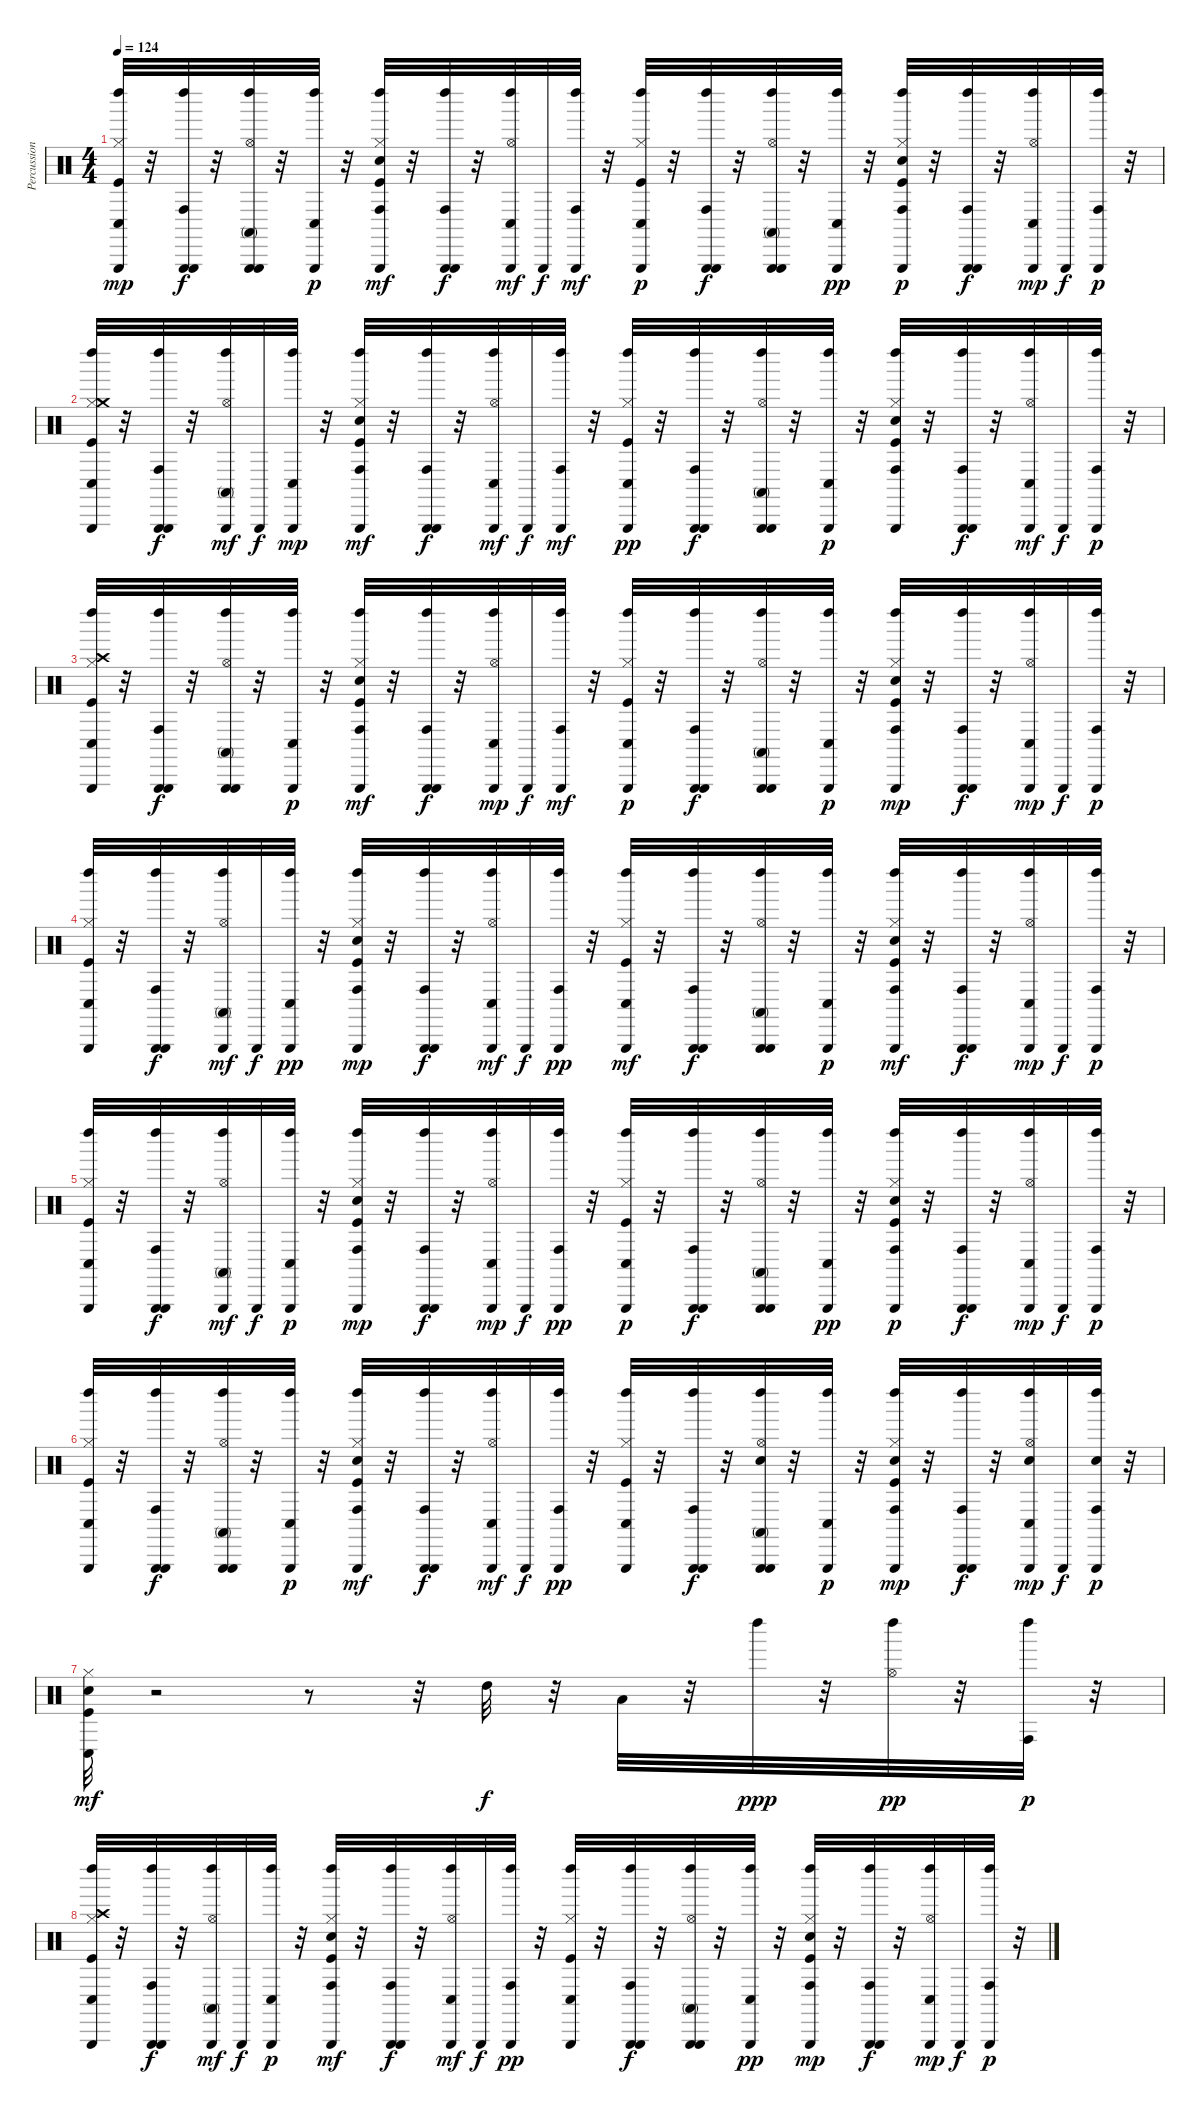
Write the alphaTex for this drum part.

\track ("Percussion" "Percussion") {instrument percussion}
\staff {score}
\articulation defaults
\ts (4 4)
\tempo 124
\clef neutral
\ks c
("Triangle (hit)" "Hi-Hat (closed)" "Conga low (hit)" "Kick (hit)" "Left Maraca (hit)").32{dy mp} r.32 ("Conga high (hit)" "Triangle (hit)" "Left Maraca (hit)" "Triangle (hit)").32{dy f} r.32 ("Triangle (hit)" "Left Maraca (hit)" "Hi-Hat (open)" "Conga high (mute)" "Triangle (hit)").32 r.32 ("Triangle (hit)" "Left Maraca (hit)" "Conga low (hit)").32{dy p} r.32 ("Triangle (hit)" "Kick (hit)" "Snare (hit) 2" "Left Maraca (hit)" "Hi-Hat (closed)" "Conga high (hit)").32{dy mf} r.32 ("Triangle (hit)" "Left Maraca (hit)" "Conga high (hit)" "Triangle (hit)").32{dy f} r.32 ("Triangle (hit)" "Hi-Hat (open)" "Left Maraca (hit)" "Conga low (hit)").32{dy mf} "Triangle (hit)".32{dy f} ("Triangle (hit)" "Left Maraca (hit)" "Conga high (hit)").32{dy mf} r.32 ("Triangle (hit)" "Hi-Hat (closed)" "Left Maraca (hit)" "Kick (hit)" "Conga low (hit)").32{dy p} r.32 ("Triangle (hit)" "Conga high (hit)" "Left Maraca (hit)" "Triangle (hit)").32{dy f} r.32 ("Hi-Hat (open)" "Conga high (mute)" "Triangle (hit)" "Left Maraca (hit)" "Triangle (hit)").32 r.32 ("Conga low (hit)" "Triangle (hit)" "Left Maraca (hit)").32{dy pp} r.32 ("Triangle (hit)" "Kick (hit)" "Snare (hit) 2" "Hi-Hat (closed)" "Conga high (hit)" "Left Maraca (hit)").32{dy p} r.32 ("Triangle (hit)" "Conga high (hit)" "Left Maraca (hit)" "Triangle (hit)").32{dy f} r.32 ("Triangle (hit)" "Conga low (hit)" "Hi-Hat (open)" "Left Maraca (hit)").32{dy mp} "Triangle (hit)".32{dy f} ("Triangle (hit)" "Conga high (hit)" "Left Maraca (hit)").32{dy p} r.32 |
("Triangle (hit)" "Hi-Hat (closed)" "Kick (hit)" "Crash medium (hit)" "Left Maraca (hit)" "Conga low (hit)").32 r.32 ("Triangle (hit)" "Conga high (hit)" "Left Maraca (hit)" "Triangle (hit)").32{dy f} r.32 ("Triangle (hit)" "Hi-Hat (open)" "Conga high (mute)" "Left Maraca (hit)").32{dy mf} "Triangle (hit)".32{dy f} ("Conga low (hit)" "Left Maraca (hit)" "Triangle (hit)").32{dy mp} r.32 ("Triangle (hit)" "Hi-Hat (closed)" "Kick (hit)" "Snare (hit) 2" "Left Maraca (hit)" "Conga high (hit)").32{dy mf} r.32 ("Triangle (hit)" "Left Maraca (hit)" "Conga high (hit)" "Triangle (hit)").32{dy f} r.32 ("Triangle (hit)" "Hi-Hat (open)" "Left Maraca (hit)" "Conga low (hit)").32{dy mf} "Triangle (hit)".32{dy f} ("Triangle (hit)" "Left Maraca (hit)" "Conga high (hit)").32{dy mf} r.32 ("Triangle (hit)" "Hi-Hat (closed)" "Kick (hit)" "Left Maraca (hit)" "Conga low (hit)").32{dy pp} r.32 ("Triangle (hit)" "Conga high (hit)" "Left Maraca (hit)" "Triangle (hit)").32{dy f} r.32 ("Left Maraca (hit)" "Triangle (hit)" "Hi-Hat (open)" "Conga high (mute)" "Triangle (hit)").32 r.32 ("Left Maraca (hit)" "Triangle (hit)" "Conga low (hit)").32{dy p} r.32 ("Triangle (hit)" "Hi-Hat (closed)" "Kick (hit)" "Snare (hit) 2" "Conga high (hit)" "Left Maraca (hit)").32 r.32 ("Triangle (hit)" "Conga high (hit)" "Left Maraca (hit)" "Triangle (hit)").32{dy f} r.32 ("Triangle (hit)" "Hi-Hat (open)" "Left Maraca (hit)" "Conga low (hit)").32{dy mf} "Triangle (hit)".32{dy f} ("Triangle (hit)" "Conga high (hit)" "Left Maraca (hit)").32{dy p} r.32 |
("Hi-Hat (closed)" "Triangle (hit)" "Kick (hit)" "Crash high (hit)" "Left Maraca (hit)" "Conga low (hit)").32 r.32 ("Triangle (hit)" "Left Maraca (hit)" "Conga high (hit)" "Triangle (hit)").32{dy f} r.32 ("Triangle (hit)" "Hi-Hat (open)" "Left Maraca (hit)" "Conga high (mute)" "Triangle (hit)").32 r.32 ("Triangle (hit)" "Left Maraca (hit)" "Conga low (hit)").32{dy p} r.32 ("Triangle (hit)" "Conga high (hit)" "Left Maraca (hit)" "Kick (hit)" "Snare (hit) 2" "Hi-Hat (closed)").32{dy mf} r.32 ("Triangle (hit)" "Left Maraca (hit)" "Conga high (hit)" "Triangle (hit)").32{dy f} r.32 ("Triangle (hit)" "Conga low (hit)" "Left Maraca (hit)" "Hi-Hat (open)").32{dy mp} "Triangle (hit)".32{dy f} ("Triangle (hit)" "Left Maraca (hit)" "Conga high (hit)").32{dy mf} r.32 ("Triangle (hit)" "Kick (hit)" "Hi-Hat (closed)" "Left Maraca (hit)" "Conga low (hit)").32{dy p} r.32 ("Conga high (hit)" "Left Maraca (hit)" "Triangle (hit)" "Triangle (hit)").32{dy f} r.32 ("Triangle (hit)" "Hi-Hat (open)" "Left Maraca (hit)" "Conga high (mute)" "Triangle (hit)").32 r.32 ("Left Maraca (hit)" "Triangle (hit)" "Conga low (hit)").32{dy p} r.32 ("Triangle (hit)" "Left Maraca (hit)" "Kick (hit)" "Snare (hit) 2" "Hi-Hat (closed)" "Conga high (hit)").32{dy mp} r.32 ("Left Maraca (hit)" "Triangle (hit)" "Conga high (hit)" "Triangle (hit)").32{dy f} r.32 ("Triangle (hit)" "Conga low (hit)" "Hi-Hat (open)" "Left Maraca (hit)").32{dy mp} "Triangle (hit)".32{dy f} ("Triangle (hit)" "Conga high (hit)" "Left Maraca (hit)").32{dy p} r.32 |
("Hi-Hat (closed)" "Left Maraca (hit)" "Triangle (hit)" "Kick (hit)" "Conga low (hit)").32 r.32 ("Left Maraca (hit)" "Triangle (hit)" "Conga high (hit)" "Triangle (hit)").32{dy f} r.32 ("Triangle (hit)" "Conga high (mute)" "Hi-Hat (open)" "Left Maraca (hit)").32{dy mf} "Triangle (hit)".32{dy f} ("Triangle (hit)" "Conga low (hit)" "Left Maraca (hit)").32{dy pp} r.32 ("Triangle (hit)" "Kick (hit)" "Snare (hit) 2" "Conga high (hit)" "Hi-Hat (closed)" "Left Maraca (hit)").32{dy mp} r.32 ("Triangle (hit)" "Left Maraca (hit)" "Conga high (hit)" "Triangle (hit)").32{dy f} r.32 ("Triangle (hit)" "Hi-Hat (open)" "Left Maraca (hit)" "Conga low (hit)").32{dy mf} "Triangle (hit)".32{dy f} ("Triangle (hit)" "Conga high (hit)" "Left Maraca (hit)").32{dy pp} r.32 ("Left Maraca (hit)" "Triangle (hit)" "Kick (hit)" "Conga low (hit)" "Hi-Hat (closed)").32{dy mf} r.32 ("Triangle (hit)" "Conga high (hit)" "Left Maraca (hit)" "Triangle (hit)").32{dy f} r.32 ("Triangle (hit)" "Conga high (mute)" "Left Maraca (hit)" "Hi-Hat (open)" "Triangle (hit)").32 r.32 ("Triangle (hit)" "Left Maraca (hit)" "Conga low (hit)").32{dy p} r.32 ("Hi-Hat (closed)" "Triangle (hit)" "Kick (hit)" "Snare (hit) 2" "Left Maraca (hit)" "Conga high (hit)").32{dy mf} r.32 ("Triangle (hit)" "Conga high (hit)" "Left Maraca (hit)" "Triangle (hit)").32{dy f} r.32 ("Triangle (hit)" "Hi-Hat (open)" "Conga low (hit)" "Left Maraca (hit)").32{dy mp} "Triangle (hit)".32{dy f} ("Conga high (hit)" "Left Maraca (hit)" "Triangle (hit)").32{dy p} r.32 |
("Left Maraca (hit)" "Triangle (hit)" "Kick (hit)" "Hi-Hat (closed)" "Conga low (hit)").32 r.32 ("Triangle (hit)" "Conga high (hit)" "Left Maraca (hit)" "Triangle (hit)").32{dy f} r.32 ("Hi-Hat (open)" "Triangle (hit)" "Conga high (mute)" "Left Maraca (hit)").32{dy mf} "Triangle (hit)".32{dy f} ("Triangle (hit)" "Left Maraca (hit)" "Conga low (hit)").32{dy p} r.32 ("Triangle (hit)" "Hi-Hat (closed)" "Kick (hit)" "Snare (hit) 2" "Conga high (hit)" "Left Maraca (hit)").32{dy mp} r.32 ("Conga high (hit)" "Triangle (hit)" "Left Maraca (hit)" "Triangle (hit)").32{dy f} r.32 ("Triangle (hit)" "Conga low (hit)" "Left Maraca (hit)" "Hi-Hat (open)").32{dy mp} "Triangle (hit)".32{dy f} ("Triangle (hit)" "Conga high (hit)" "Left Maraca (hit)").32{dy pp} r.32 ("Left Maraca (hit)" "Triangle (hit)" "Kick (hit)" "Hi-Hat (closed)" "Conga low (hit)").32{dy p} r.32 ("Conga high (hit)" "Triangle (hit)" "Left Maraca (hit)" "Triangle (hit)").32{dy f} r.32 ("Triangle (hit)" "Hi-Hat (open)" "Left Maraca (hit)" "Conga high (mute)" "Triangle (hit)").32 r.32 ("Triangle (hit)" "Conga low (hit)" "Left Maraca (hit)").32{dy pp} r.32 ("Hi-Hat (closed)" "Conga high (hit)" "Triangle (hit)" "Kick (hit)" "Snare (hit) 2" "Left Maraca (hit)").32{dy p} r.32 ("Triangle (hit)" "Conga high (hit)" "Left Maraca (hit)" "Triangle (hit)").32{dy f} r.32 ("Triangle (hit)" "Conga low (hit)" "Hi-Hat (open)" "Left Maraca (hit)").32{dy mp} "Triangle (hit)".32{dy f} ("Triangle (hit)" "Conga high (hit)" "Left Maraca (hit)").32{dy p} r.32 |
("Triangle (hit)" "Kick (hit)" "Hi-Hat (closed)" "Left Maraca (hit)" "Conga low (hit)").32 r.32 ("Triangle (hit)" "Conga high (hit)" "Left Maraca (hit)" "Triangle (hit)").32{dy f} r.32 ("Triangle (hit)" "Conga high (mute)" "Left Maraca (hit)" "Hi-Hat (open)" "Triangle (hit)").32 r.32 ("Triangle (hit)" "Left Maraca (hit)" "Conga low (hit)").32{dy p} r.32 ("Triangle (hit)" "Left Maraca (hit)" "Kick (hit)" "Snare (hit) 2" "Hi-Hat (closed)" "Conga high (hit)").32{dy mf} r.32 ("Triangle (hit)" "Conga high (hit)" "Left Maraca (hit)" "Triangle (hit)").32{dy f} r.32 ("Triangle (hit)" "Left Maraca (hit)" "Hi-Hat (open)" "Conga low (hit)").32{dy mf} "Triangle (hit)".32{dy f} ("Triangle (hit)" "Conga high (hit)" "Left Maraca (hit)").32{dy pp} r.32 ("Hi-Hat (closed)" "Triangle (hit)" "Kick (hit)" "Left Maraca (hit)" "Conga low (hit)").32 r.32 ("Triangle (hit)" "Left Maraca (hit)" "Conga high (hit)" "Triangle (hit)").32{dy f} r.32 ("Triangle (hit)" "Snare (hit) 2" "Hi-Hat (open)" "Left Maraca (hit)" "Conga high (mute)" "Triangle (hit)").32 r.32 ("Triangle (hit)" "Left Maraca (hit)" "Conga low (hit)").32{dy p} r.32 ("Conga high (hit)" "Left Maraca (hit)" "Triangle (hit)" "Kick (hit)" "Snare (hit) 2" "Hi-Hat (closed)").32{dy mp} r.32 ("Triangle (hit)" "Left Maraca (hit)" "Conga high (hit)" "Triangle (hit)").32{dy f} r.32 ("Triangle (hit)" "Snare (hit) 2" "Hi-Hat (open)" "Conga low (hit)" "Left Maraca (hit)").32{dy mp} "Triangle (hit)".32{dy f} ("Triangle (hit)" "Conga high (hit)" "Snare (hit) 2" "Left Maraca (hit)").32{dy p} r.32 |
("Kick (hit)" "Snare (hit) 2" "Hi-Hat (closed)" "Conga low (hit)").32{dy mf} r.2 r.8 r.32 "High Tom (hit)".32{dy f} r.32 "Low Tom (hit)".32 r.32 "Left Maraca (hit)".32{dy ppp} r.32 ("Hi-Hat (open)" "Left Maraca (hit)").32{dy pp} r.32 ("Conga high (hit)" "Left Maraca (hit)").32{dy p} r.32 |
("Triangle (hit)" "Kick (hit)" "Hi-Hat (closed)" "Crash high (hit)" "Left Maraca (hit)" "Conga low (hit)").32 r.32 ("Triangle (hit)" "Conga high (hit)" "Left Maraca (hit)" "Triangle (hit)").32{dy f} r.32 ("Triangle (hit)" "Hi-Hat (open)" "Conga high (mute)" "Left Maraca (hit)").32{dy mf} "Triangle (hit)".32{dy f} ("Triangle (hit)" "Left Maraca (hit)" "Conga low (hit)").32{dy p} r.32 ("Triangle (hit)" "Hi-Hat (closed)" "Left Maraca (hit)" "Kick (hit)" "Snare (hit) 2" "Conga high (hit)").32{dy mf} r.32 ("Triangle (hit)" "Left Maraca (hit)" "Conga high (hit)" "Triangle (hit)").32{dy f} r.32 ("Hi-Hat (open)" "Triangle (hit)" "Conga low (hit)" "Left Maraca (hit)").32{dy mf} "Triangle (hit)".32{dy f} ("Triangle (hit)" "Conga high (hit)" "Left Maraca (hit)").32{dy pp} r.32 ("Triangle (hit)" "Hi-Hat (closed)" "Left Maraca (hit)" "Kick (hit)" "Conga low (hit)").32 r.32 ("Triangle (hit)" "Conga high (hit)" "Left Maraca (hit)" "Triangle (hit)").32{dy f} r.32 ("Hi-Hat (open)" "Triangle (hit)" "Left Maraca (hit)" "Conga high (mute)" "Triangle (hit)").32 r.32 ("Triangle (hit)" "Conga low (hit)" "Left Maraca (hit)").32{dy pp} r.32 ("Conga high (hit)" "Triangle (hit)" "Kick (hit)" "Snare (hit) 2" "Left Maraca (hit)" "Hi-Hat (closed)").32{dy mp} r.32 ("Triangle (hit)" "Left Maraca (hit)" "Conga high (hit)" "Triangle (hit)").32{dy f} r.32 ("Triangle (hit)" "Conga low (hit)" "Hi-Hat (open)" "Left Maraca (hit)").32{dy mp} "Triangle (hit)".32{dy f} ("Conga high (hit)" "Left Maraca (hit)" "Triangle (hit)").32{dy p} r.32
